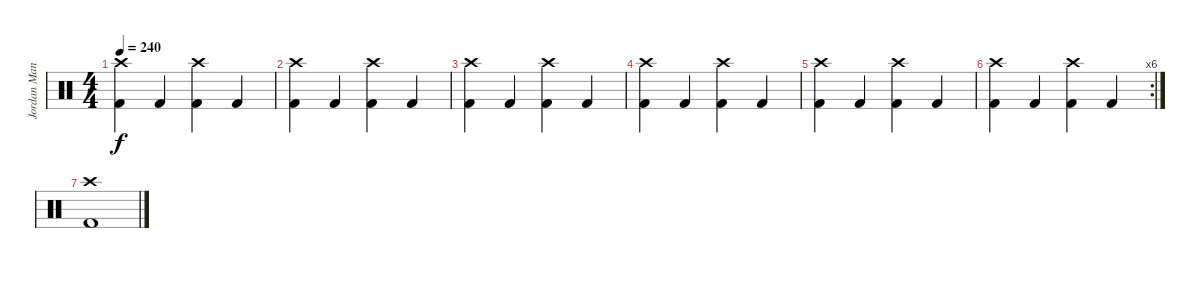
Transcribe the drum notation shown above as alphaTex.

\track ("Jordan Mancino" "Jordan Man") {instrument percussion}
\staff {score}
\articulation defaults
\ts (4 4)
\tempo 240
\clef neutral
\ks c
("Crash high (hit)" "Kick (hit) 2").4{dy f} "Kick (hit) 2".4 ("Crash high (hit)" "Kick (hit) 2").4 "Kick (hit) 2".4 |
("Crash high (hit)" "Kick (hit) 2").4 "Kick (hit) 2".4 ("Crash high (hit)" "Kick (hit) 2").4 "Kick (hit) 2".4 |
("Crash high (hit)" "Kick (hit) 2").4 "Kick (hit) 2".4 ("Crash high (hit)" "Kick (hit) 2").4 "Kick (hit) 2".4 |
("Crash high (hit)" "Kick (hit) 2").4 "Kick (hit) 2".4 ("Crash high (hit)" "Kick (hit) 2").4 "Kick (hit) 2".4 |
("Crash high (hit)" "Kick (hit) 2").4 "Kick (hit) 2".4 ("Crash high (hit)" "Kick (hit) 2").4 "Kick (hit) 2".4 |
\rc 6
("Crash high (hit)" "Kick (hit) 2").4 "Kick (hit) 2".4 ("Crash high (hit)" "Kick (hit) 2").4 "Kick (hit) 2".4 |
("Crash high (hit)" "Kick (hit) 2").1
